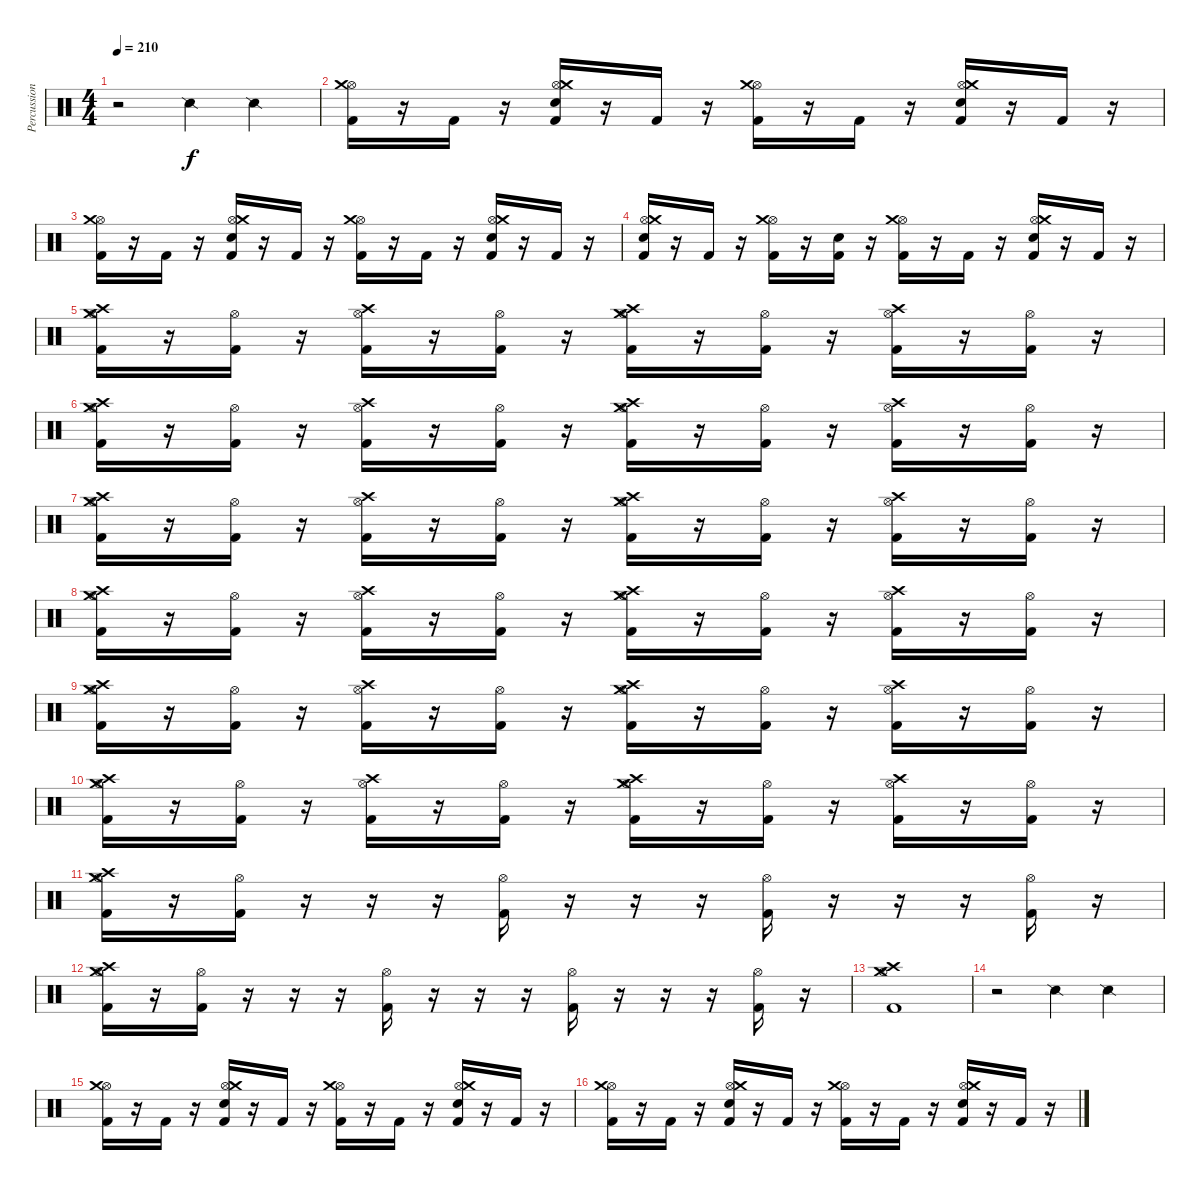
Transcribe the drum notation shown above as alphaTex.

\track ("Percussion" "Percussion") {instrument percussion}
\staff {score}
\articulation defaults
\ts (4 4)
\tempo 210
\clef neutral
\ks c
r.2{dy f} "Snare (side stick) 2".4 "Snare (side stick) 2".4 |
("Kick (hit) 2" "Hi-Hat (open)" "Crash medium (hit)").16 r.16 "Kick (hit) 2".16 r.16 ("Kick (hit) 2" "Electric Snare (hit)" "Hi-Hat (open)" "Crash medium (hit)").16 r.16 "Kick (hit) 2".16 r.16 ("Kick (hit) 2" "Hi-Hat (open)" "Crash medium (hit)").16 r.16 "Kick (hit) 2".16 r.16 ("Kick (hit) 2" "Electric Snare (hit)" "Hi-Hat (open)" "Crash medium (hit)").16 r.16 "Kick (hit) 2".16 r.16 |
("Kick (hit) 2" "Hi-Hat (open)" "Crash medium (hit)").16 r.16 "Kick (hit) 2".16 r.16 ("Kick (hit) 2" "Electric Snare (hit)" "Hi-Hat (open)" "Crash medium (hit)").16 r.16 "Kick (hit) 2".16 r.16 ("Kick (hit) 2" "Hi-Hat (open)" "Crash medium (hit)").16 r.16 "Kick (hit) 2".16 r.16 ("Kick (hit) 2" "Electric Snare (hit)" "Hi-Hat (open)" "Crash medium (hit)").16 r.16 "Kick (hit) 2".16 r.16 |
("Kick (hit) 2" "Electric Snare (hit)" "Hi-Hat (open)" "Crash medium (hit)").16 r.16 "Kick (hit) 2".16 r.16 ("Kick (hit) 2" "Hi-Hat (open)" "Crash medium (hit)").16 r.16 ("Kick (hit) 2" "Electric Snare (hit)").16 r.16 ("Kick (hit) 2" "Hi-Hat (open)" "Crash medium (hit)").16 r.16 "Kick (hit) 2".16 r.16 ("Kick (hit) 2" "Electric Snare (hit)" "Hi-Hat (open)" "Crash medium (hit)").16 r.16 "Kick (hit) 2".16 r.16 |
("Kick (hit) 2" "Crash medium (hit)" "Hi-Hat (open)" "Crash high (hit)").16 r.16 ("Kick (hit) 2" "Hi-Hat (open)").16 r.16 ("Kick (hit) 2" "Hi-Hat (open)" "Crash high (hit)").16 r.16 ("Kick (hit) 2" "Hi-Hat (open)").16 r.16 ("Kick (hit) 2" "Crash medium (hit)" "Hi-Hat (open)" "Crash high (hit)").16 r.16 ("Kick (hit) 2" "Hi-Hat (open)").16 r.16 ("Kick (hit) 2" "Hi-Hat (open)" "Crash high (hit)").16 r.16 ("Kick (hit) 2" "Hi-Hat (open)").16 r.16 |
("Kick (hit) 2" "Crash medium (hit)" "Hi-Hat (open)" "Crash high (hit)").16 r.16 ("Kick (hit) 2" "Hi-Hat (open)").16 r.16 ("Kick (hit) 2" "Hi-Hat (open)" "Crash high (hit)").16 r.16 ("Kick (hit) 2" "Hi-Hat (open)").16 r.16 ("Kick (hit) 2" "Crash medium (hit)" "Hi-Hat (open)" "Crash high (hit)").16 r.16 ("Kick (hit) 2" "Hi-Hat (open)").16 r.16 ("Kick (hit) 2" "Hi-Hat (open)" "Crash high (hit)").16 r.16 ("Kick (hit) 2" "Hi-Hat (open)").16 r.16 |
("Kick (hit) 2" "Crash medium (hit)" "Hi-Hat (open)" "Crash high (hit)").16 r.16 ("Kick (hit) 2" "Hi-Hat (open)").16 r.16 ("Kick (hit) 2" "Hi-Hat (open)" "Crash high (hit)").16 r.16 ("Kick (hit) 2" "Hi-Hat (open)").16 r.16 ("Kick (hit) 2" "Crash medium (hit)" "Hi-Hat (open)" "Crash high (hit)").16 r.16 ("Kick (hit) 2" "Hi-Hat (open)").16 r.16 ("Kick (hit) 2" "Hi-Hat (open)" "Crash high (hit)").16 r.16 ("Kick (hit) 2" "Hi-Hat (open)").16 r.16 |
("Kick (hit) 2" "Crash medium (hit)" "Hi-Hat (open)" "Crash high (hit)").16 r.16 ("Kick (hit) 2" "Hi-Hat (open)").16 r.16 ("Kick (hit) 2" "Hi-Hat (open)" "Crash high (hit)").16 r.16 ("Kick (hit) 2" "Hi-Hat (open)").16 r.16 ("Kick (hit) 2" "Crash medium (hit)" "Hi-Hat (open)" "Crash high (hit)").16 r.16 ("Kick (hit) 2" "Hi-Hat (open)").16 r.16 ("Kick (hit) 2" "Hi-Hat (open)" "Crash high (hit)").16 r.16 ("Kick (hit) 2" "Hi-Hat (open)").16 r.16 |
("Kick (hit) 2" "Crash medium (hit)" "Hi-Hat (open)" "Crash high (hit)").16 r.16 ("Kick (hit) 2" "Hi-Hat (open)").16 r.16 ("Kick (hit) 2" "Hi-Hat (open)" "Crash high (hit)").16 r.16 ("Kick (hit) 2" "Hi-Hat (open)").16 r.16 ("Kick (hit) 2" "Crash medium (hit)" "Hi-Hat (open)" "Crash high (hit)").16 r.16 ("Kick (hit) 2" "Hi-Hat (open)").16 r.16 ("Kick (hit) 2" "Hi-Hat (open)" "Crash high (hit)").16 r.16 ("Kick (hit) 2" "Hi-Hat (open)").16 r.16 |
("Kick (hit) 2" "Crash medium (hit)" "Hi-Hat (open)" "Crash high (hit)").16 r.16 ("Kick (hit) 2" "Hi-Hat (open)").16 r.16 ("Kick (hit) 2" "Hi-Hat (open)" "Crash high (hit)").16 r.16 ("Kick (hit) 2" "Hi-Hat (open)").16 r.16 ("Kick (hit) 2" "Crash medium (hit)" "Hi-Hat (open)" "Crash high (hit)").16 r.16 ("Kick (hit) 2" "Hi-Hat (open)").16 r.16 ("Kick (hit) 2" "Hi-Hat (open)" "Crash high (hit)").16 r.16 ("Kick (hit) 2" "Hi-Hat (open)").16 r.16 |
("Kick (hit) 2" "Crash medium (hit)" "Hi-Hat (open)" "Crash high (hit)").16 r.16 ("Kick (hit) 2" "Hi-Hat (open)").16 r.16 r.16 r.16 ("Kick (hit) 2" "Hi-Hat (open)").16 r.16 r.16 r.16 ("Kick (hit) 2" "Hi-Hat (open)").16 r.16 r.16 r.16 ("Kick (hit) 2" "Hi-Hat (open)").16 r.16 |
("Kick (hit) 2" "Crash medium (hit)" "Hi-Hat (open)" "Crash high (hit)").16 r.16 ("Kick (hit) 2" "Hi-Hat (open)").16 r.16 r.16 r.16 ("Kick (hit) 2" "Hi-Hat (open)").16 r.16 r.16 r.16 ("Kick (hit) 2" "Hi-Hat (open)").16 r.16 r.16 r.16 ("Kick (hit) 2" "Hi-Hat (open)").16 r.16 |
("Kick (hit) 2" "Crash medium (hit)" "Hi-Hat (open)" "Crash high (hit)").1 |
r.2 "Snare (side stick) 2".4 "Snare (side stick) 2".4 |
("Kick (hit) 2" "Hi-Hat (open)" "Crash medium (hit)").16 r.16 "Kick (hit) 2".16 r.16 ("Kick (hit) 2" "Electric Snare (hit)" "Hi-Hat (open)" "Crash medium (hit)").16 r.16 "Kick (hit) 2".16 r.16 ("Kick (hit) 2" "Hi-Hat (open)" "Crash medium (hit)").16 r.16 "Kick (hit) 2".16 r.16 ("Kick (hit) 2" "Electric Snare (hit)" "Hi-Hat (open)" "Crash medium (hit)").16 r.16 "Kick (hit) 2".16 r.16 |
("Kick (hit) 2" "Hi-Hat (open)" "Crash medium (hit)").16 r.16 "Kick (hit) 2".16 r.16 ("Kick (hit) 2" "Electric Snare (hit)" "Hi-Hat (open)" "Crash medium (hit)").16 r.16 "Kick (hit) 2".16 r.16 ("Kick (hit) 2" "Hi-Hat (open)" "Crash medium (hit)").16 r.16 "Kick (hit) 2".16 r.16 ("Kick (hit) 2" "Electric Snare (hit)" "Hi-Hat (open)" "Crash medium (hit)").16 r.16 "Kick (hit) 2".16 r.16
